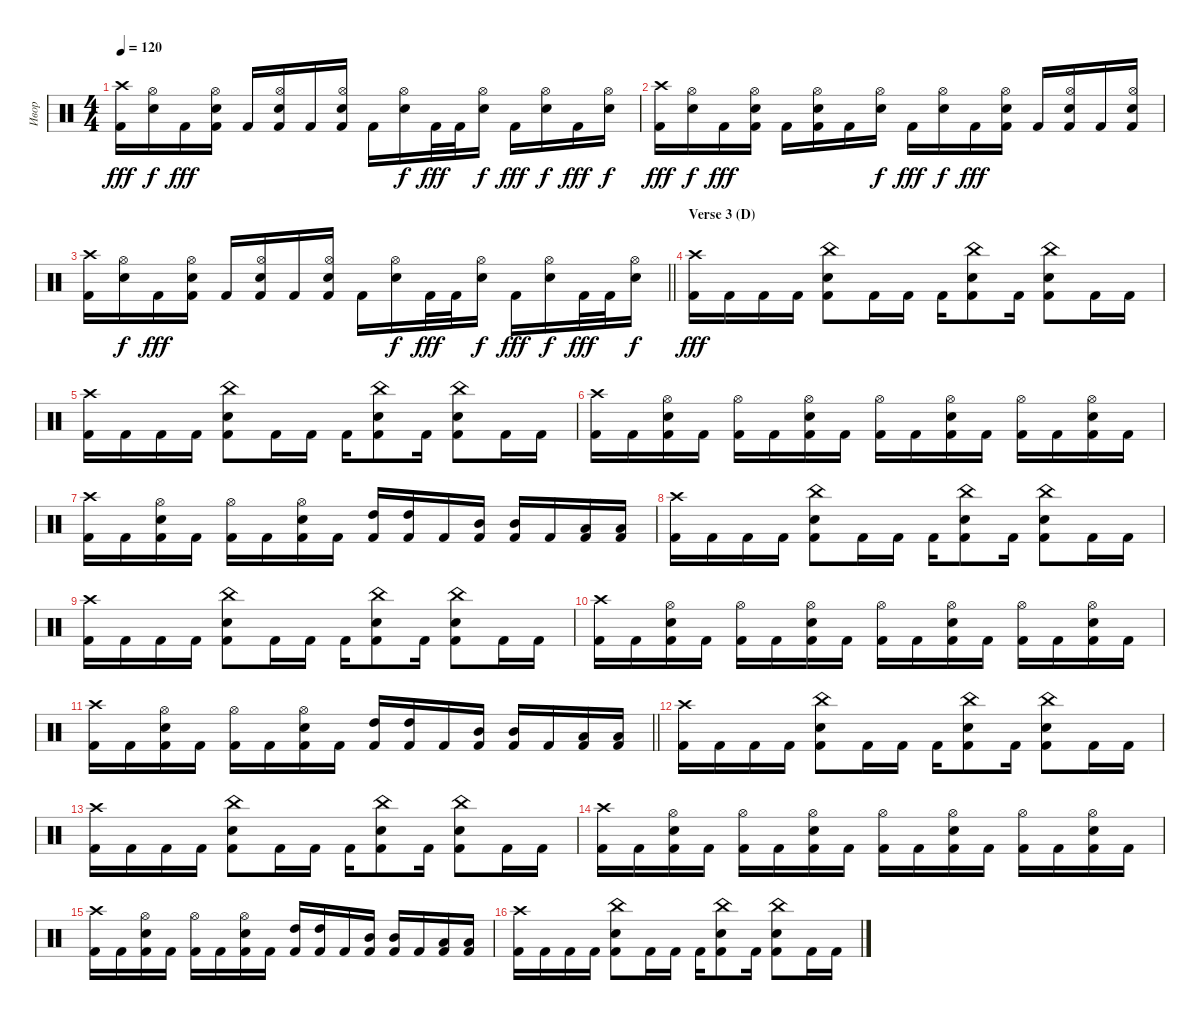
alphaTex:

\track ("Ивор" "Ивор") {instrument percussion}
\staff {score}
\articulation defaults
\ts (4 4)
\tempo 120
\clef neutral
\ks c
("Crash high (hit)" "Kick (hit) 2").16{dy fff} ("Hi-Hat (open)" "Electric Snare (hit)").16{dy f} "Kick (hit) 2".16{dy fff} ("Hi-Hat (open)" "Electric Snare (hit)" "Kick (hit) 2").16 "Kick (hit) 2".16 ("Hi-Hat (open)" "Electric Snare (hit)" "Kick (hit) 2").16 "Kick (hit) 2".16 ("Hi-Hat (open)" "Electric Snare (hit)" "Kick (hit) 2").16 "Kick (hit) 2".16 ("Hi-Hat (open)" "Electric Snare (hit)").16{dy f} "Kick (hit) 2".32{dy fff} "Kick (hit) 2".32 ("Hi-Hat (open)" "Electric Snare (hit)").16{dy f} "Kick (hit) 2".16{dy fff} ("Hi-Hat (open)" "Electric Snare (hit)").16{dy f} "Kick (hit) 2".16{dy fff} ("Hi-Hat (open)" "Electric Snare (hit)").16{dy f} |
("Crash high (hit)" "Kick (hit) 2").16{dy fff} ("Hi-Hat (open)" "Electric Snare (hit)").16{dy f} "Kick (hit) 2".16{dy fff} ("Hi-Hat (open)" "Electric Snare (hit)" "Kick (hit) 2").16 "Kick (hit) 2".16 ("Hi-Hat (open)" "Electric Snare (hit)" "Kick (hit) 2").16 "Kick (hit) 2".16 ("Hi-Hat (open)" "Electric Snare (hit)").16{dy f} "Kick (hit) 2".16{dy fff} ("Hi-Hat (open)" "Electric Snare (hit)").16{dy f} "Kick (hit) 2".16{dy fff} ("Hi-Hat (open)" "Electric Snare (hit)" "Kick (hit) 2").16 "Kick (hit) 2".16 ("Hi-Hat (open)" "Electric Snare (hit)" "Kick (hit) 2").16 "Kick (hit) 2".16 ("Hi-Hat (open)" "Electric Snare (hit)" "Kick (hit) 2").16 |
\barLineRight lightlight
("Crash high (hit)" "Kick (hit) 2").16 ("Hi-Hat (open)" "Electric Snare (hit)").16{dy f} "Kick (hit) 2".16{dy fff} ("Hi-Hat (open)" "Electric Snare (hit)" "Kick (hit) 2").16 "Kick (hit) 2".16 ("Hi-Hat (open)" "Electric Snare (hit)" "Kick (hit) 2").16 "Kick (hit) 2".16 ("Hi-Hat (open)" "Electric Snare (hit)" "Kick (hit) 2").16 "Kick (hit) 2".16 ("Hi-Hat (open)" "Electric Snare (hit)").16{dy f} "Kick (hit) 2".32{dy fff} "Kick (hit) 2".32 ("Hi-Hat (open)" "Electric Snare (hit)").16{dy f} "Kick (hit) 2".16{dy fff} ("Hi-Hat (open)" "Electric Snare (hit)").16{dy f} "Kick (hit) 2".32{dy fff} "Kick (hit) 2".32 ("Hi-Hat (open)" "Electric Snare (hit)").16{dy f} |
\section ("" "Verse 3 (D)")
("Crash high (hit)" "Kick (hit) 2").16{dy fff} "Kick (hit) 2".16 "Kick (hit) 2".16 "Kick (hit) 2".16 ("China (hit)" "Electric Snare (hit)" "Kick (hit) 2").8 "Kick (hit) 2".16 "Kick (hit) 2".16 "Kick (hit) 2".16 ("China (hit)" "Electric Snare (hit)" "Kick (hit) 2").8 "Kick (hit) 2".16 ("China (hit)" "Electric Snare (hit)" "Kick (hit) 2").8 "Kick (hit) 2".16 "Kick (hit) 2".16 |
("Crash high (hit)" "Kick (hit) 2").16 "Kick (hit) 2".16 "Kick (hit) 2".16 "Kick (hit) 2".16 ("China (hit)" "Electric Snare (hit)" "Kick (hit) 2").8 "Kick (hit) 2".16 "Kick (hit) 2".16 "Kick (hit) 2".16 ("China (hit)" "Electric Snare (hit)" "Kick (hit) 2").8 "Kick (hit) 2".16 ("China (hit)" "Electric Snare (hit)" "Kick (hit) 2").8 "Kick (hit) 2".16 "Kick (hit) 2".16 |
("Crash high (hit)" "Kick (hit) 2").16 "Kick (hit) 2".16 ("Hi-Hat (open)" "Electric Snare (hit)" "Kick (hit) 2").16 "Kick (hit) 2".16 ("Hi-Hat (open)" "Kick (hit) 2").16 "Kick (hit) 2".16 ("Hi-Hat (open)" "Electric Snare (hit)" "Kick (hit) 2").16 "Kick (hit) 2".16 ("Hi-Hat (open)" "Kick (hit) 2").16 "Kick (hit) 2".16 ("Hi-Hat (open)" "Electric Snare (hit)" "Kick (hit) 2").16 "Kick (hit) 2".16 ("Hi-Hat (open)" "Kick (hit) 2").16 "Kick (hit) 2".16 ("Hi-Hat (open)" "Electric Snare (hit)" "Kick (hit) 2").16 "Kick (hit) 2".16 |
("Crash high (hit)" "Kick (hit) 2").16 "Kick (hit) 2".16 ("Hi-Hat (open)" "Electric Snare (hit)" "Kick (hit) 2").16 "Kick (hit) 2".16 ("Hi-Hat (open)" "Kick (hit) 2").16 "Kick (hit) 2".16 ("Hi-Hat (open)" "Electric Snare (hit)" "Kick (hit) 2").16 "Kick (hit) 2".16 ("High Tom (hit)" "Kick (hit) 2").16 ("High Tom (hit)" "Kick (hit) 2").16 "Kick (hit) 2".16 ("Mid Tom (hit)" "Kick (hit) 2").16 ("Mid Tom (hit)" "Kick (hit) 2").16 "Kick (hit) 2".16 ("Low Tom (hit)" "Kick (hit) 2").16 ("Low Tom (hit)" "Kick (hit) 2").16 |
("Crash high (hit)" "Kick (hit) 2").16 "Kick (hit) 2".16 "Kick (hit) 2".16 "Kick (hit) 2".16 ("China (hit)" "Electric Snare (hit)" "Kick (hit) 2").8 "Kick (hit) 2".16 "Kick (hit) 2".16 "Kick (hit) 2".16 ("China (hit)" "Electric Snare (hit)" "Kick (hit) 2").8 "Kick (hit) 2".16 ("China (hit)" "Electric Snare (hit)" "Kick (hit) 2").8 "Kick (hit) 2".16 "Kick (hit) 2".16 |
("Crash high (hit)" "Kick (hit) 2").16 "Kick (hit) 2".16 "Kick (hit) 2".16 "Kick (hit) 2".16 ("China (hit)" "Electric Snare (hit)" "Kick (hit) 2").8 "Kick (hit) 2".16 "Kick (hit) 2".16 "Kick (hit) 2".16 ("China (hit)" "Electric Snare (hit)" "Kick (hit) 2").8 "Kick (hit) 2".16 ("China (hit)" "Electric Snare (hit)" "Kick (hit) 2").8 "Kick (hit) 2".16 "Kick (hit) 2".16 |
("Crash high (hit)" "Kick (hit) 2").16 "Kick (hit) 2".16 ("Hi-Hat (open)" "Electric Snare (hit)" "Kick (hit) 2").16 "Kick (hit) 2".16 ("Hi-Hat (open)" "Kick (hit) 2").16 "Kick (hit) 2".16 ("Hi-Hat (open)" "Electric Snare (hit)" "Kick (hit) 2").16 "Kick (hit) 2".16 ("Hi-Hat (open)" "Kick (hit) 2").16 "Kick (hit) 2".16 ("Hi-Hat (open)" "Electric Snare (hit)" "Kick (hit) 2").16 "Kick (hit) 2".16 ("Hi-Hat (open)" "Kick (hit) 2").16 "Kick (hit) 2".16 ("Hi-Hat (open)" "Electric Snare (hit)" "Kick (hit) 2").16 "Kick (hit) 2".16 |
\barLineRight lightlight
("Crash high (hit)" "Kick (hit) 2").16 "Kick (hit) 2".16 ("Hi-Hat (open)" "Electric Snare (hit)" "Kick (hit) 2").16 "Kick (hit) 2".16 ("Hi-Hat (open)" "Kick (hit) 2").16 "Kick (hit) 2".16 ("Hi-Hat (open)" "Electric Snare (hit)" "Kick (hit) 2").16 "Kick (hit) 2".16 ("High Tom (hit)" "Kick (hit) 2").16 ("High Tom (hit)" "Kick (hit) 2").16 "Kick (hit) 2".16 ("Mid Tom (hit)" "Kick (hit) 2").16 ("Mid Tom (hit)" "Kick (hit) 2").16 "Kick (hit) 2".16 ("Low Tom (hit)" "Kick (hit) 2").16 ("Low Tom (hit)" "Kick (hit) 2").16 |
\section ("" "")
("Crash high (hit)" "Kick (hit) 2").16 "Kick (hit) 2".16 "Kick (hit) 2".16 "Kick (hit) 2".16 ("China (hit)" "Electric Snare (hit)" "Kick (hit) 2").8 "Kick (hit) 2".16 "Kick (hit) 2".16 "Kick (hit) 2".16 ("China (hit)" "Electric Snare (hit)" "Kick (hit) 2").8 "Kick (hit) 2".16 ("China (hit)" "Electric Snare (hit)" "Kick (hit) 2").8 "Kick (hit) 2".16 "Kick (hit) 2".16 |
("Crash high (hit)" "Kick (hit) 2").16 "Kick (hit) 2".16 "Kick (hit) 2".16 "Kick (hit) 2".16 ("China (hit)" "Electric Snare (hit)" "Kick (hit) 2").8 "Kick (hit) 2".16 "Kick (hit) 2".16 "Kick (hit) 2".16 ("China (hit)" "Electric Snare (hit)" "Kick (hit) 2").8 "Kick (hit) 2".16 ("China (hit)" "Electric Snare (hit)" "Kick (hit) 2").8 "Kick (hit) 2".16 "Kick (hit) 2".16 |
("Crash high (hit)" "Kick (hit) 2").16 "Kick (hit) 2".16 ("Hi-Hat (open)" "Electric Snare (hit)" "Kick (hit) 2").16 "Kick (hit) 2".16 ("Hi-Hat (open)" "Kick (hit) 2").16 "Kick (hit) 2".16 ("Hi-Hat (open)" "Electric Snare (hit)" "Kick (hit) 2").16 "Kick (hit) 2".16 ("Hi-Hat (open)" "Kick (hit) 2").16 "Kick (hit) 2".16 ("Hi-Hat (open)" "Electric Snare (hit)" "Kick (hit) 2").16 "Kick (hit) 2".16 ("Hi-Hat (open)" "Kick (hit) 2").16 "Kick (hit) 2".16 ("Hi-Hat (open)" "Electric Snare (hit)" "Kick (hit) 2").16 "Kick (hit) 2".16 |
("Crash high (hit)" "Kick (hit) 2").16 "Kick (hit) 2".16 ("Hi-Hat (open)" "Electric Snare (hit)" "Kick (hit) 2").16 "Kick (hit) 2".16 ("Hi-Hat (open)" "Kick (hit) 2").16 "Kick (hit) 2".16 ("Hi-Hat (open)" "Electric Snare (hit)" "Kick (hit) 2").16 "Kick (hit) 2".16 ("High Tom (hit)" "Kick (hit) 2").16 ("High Tom (hit)" "Kick (hit) 2").16 "Kick (hit) 2".16 ("Mid Tom (hit)" "Kick (hit) 2").16 ("Mid Tom (hit)" "Kick (hit) 2").16 "Kick (hit) 2".16 ("Low Tom (hit)" "Kick (hit) 2").16 ("Low Tom (hit)" "Kick (hit) 2").16 |
("Crash high (hit)" "Kick (hit) 2").16 "Kick (hit) 2".16 "Kick (hit) 2".16 "Kick (hit) 2".16 ("China (hit)" "Electric Snare (hit)" "Kick (hit) 2").8 "Kick (hit) 2".16 "Kick (hit) 2".16 "Kick (hit) 2".16 ("China (hit)" "Electric Snare (hit)" "Kick (hit) 2").8 "Kick (hit) 2".16 ("China (hit)" "Electric Snare (hit)" "Kick (hit) 2").8 "Kick (hit) 2".16 "Kick (hit) 2".16
